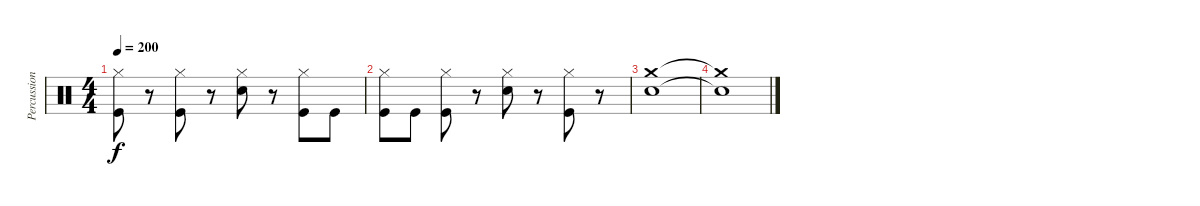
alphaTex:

\track ("Percussion" "Percussion") {instrument percussion}
\staff {score}
\articulation defaults
\ts (4 4)
\tempo 200
\clef neutral
\ks c
("Hi-Hat (closed)" "Kick (hit)").8{dy f} r.8 ("Hi-Hat (closed)" "Kick (hit)").8 r.8 ("Hi-Hat (closed)" "Snare (hit) 2").8 r.8 ("Hi-Hat (closed)" "Kick (hit)").8 "Kick (hit)".8 |
("Hi-Hat (closed)" "Kick (hit)").8 "Kick (hit)".8 ("Hi-Hat (closed)" "Kick (hit)").8 r.8 ("Hi-Hat (closed)" "Snare (hit) 2").8 r.8 ("Hi-Hat (closed)" "Kick (hit)").8 r.8 |
("Crash medium (hit)" "Snare (hit) 2").1 |
("Crash medium (hit)"{t} "Snare (hit) 2"{t}).1
